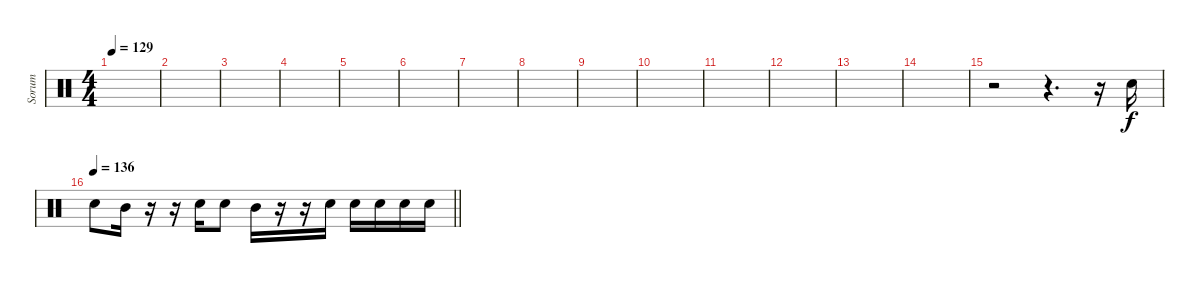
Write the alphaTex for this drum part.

\track ("Sorum" "Sorum") {instrument percussion}
\staff {score}
\articulation defaults
\ts (4 4)
\tempo 129
\clef neutral
\ks c
|
|
|
|
|
|
|
|
|
|
|
|
|
|
r.2 r.4{d} r.16 "Electric Snare (hit)".16 |
\tempo 136
\barLineRight lightlight "Electric Snare (hit)".8 "Mid Tom (hit)".16
r.16 r.16 "Electric Snare (hit)".16 "Electric Snare (hit)".8 "Mid Tom (hit)".16 r.16 r.16 "Electric Snare (hit)".16 "Electric Snare (hit)".16 "Electric Snare (hit)".16 "Electric Snare (hit)".16 "Electric Snare (hit)".16
